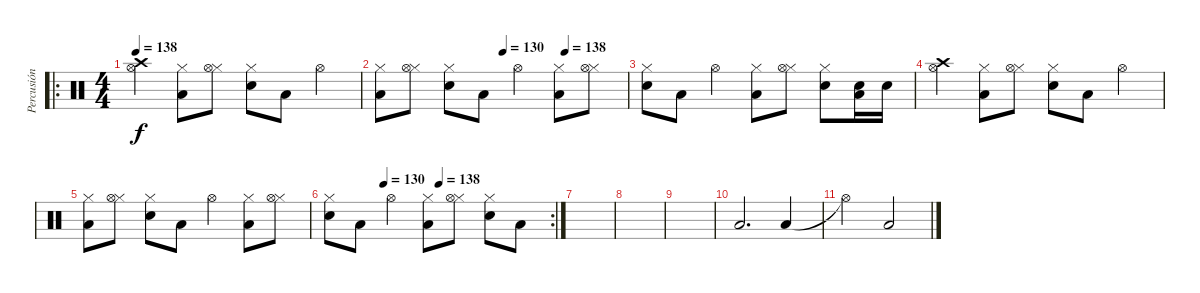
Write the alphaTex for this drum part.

\track ("Percusión" "Percusión") {instrument percussion}
\staff {score}
\articulation defaults
\ro
\ts (4 4)
\tempo 138
\clef neutral
\ks c
("Hi-Hat (open)" "Crash high (hit)").4{dy f} ("Low Tom (hit)" "Hi-Hat (closed)").8 ("Hi-Hat (closed)" "Hi-Hat (open)").8 ("Snare (hit) 2" "Hi-Hat (closed)").8 "Low Tom (hit)".8 "Hi-Hat (open)".4 |
\tempo (130 0.5)
\tempo (138 0.75)
("Low Tom (hit)" "Hi-Hat (closed)").8 ("Hi-Hat (closed)" "Hi-Hat (open)").8 ("Snare (hit) 2" "Hi-Hat (closed)").8 "Low Tom (hit)".8 "Hi-Hat (open)".4 ("Low Tom (hit)" "Hi-Hat (closed)").8 ("Hi-Hat (closed)" "Hi-Hat (open)").8 |
("Snare (hit) 2" "Hi-Hat (closed)").8 "Low Tom (hit)".8 "Hi-Hat (open)".4 ("Low Tom (hit)" "Hi-Hat (closed)").8 ("Hi-Hat (closed)" "Hi-Hat (open)").8 ("Snare (hit) 2" "Hi-Hat (closed)").8 ("Snare (hit) 2" "Low Tom (hit)").16 "Snare (hit) 2".16 |
("Hi-Hat (open)" "Crash high (hit)").4 ("Low Tom (hit)" "Hi-Hat (closed)").8 ("Hi-Hat (closed)" "Hi-Hat (open)").8 ("Snare (hit) 2" "Hi-Hat (closed)").8 "Low Tom (hit)".8 "Hi-Hat (open)".4 |
("Low Tom (hit)" "Hi-Hat (closed)").8 ("Hi-Hat (closed)" "Hi-Hat (open)").8 ("Snare (hit) 2" "Hi-Hat (closed)").8 "Low Tom (hit)".8 "Hi-Hat (open)".4 ("Low Tom (hit)" "Hi-Hat (closed)").8 ("Hi-Hat (closed)" "Hi-Hat (open)").8 |
\rc 2
\tempo (130 0.25)
\tempo (138 0.5)
("Snare (hit) 2" "Hi-Hat (closed)").8 "Low Tom (hit)".8 "Hi-Hat (open)".4 ("Low Tom (hit)" "Hi-Hat (closed)").8 ("Hi-Hat (closed)" "Hi-Hat (open)").8 ("Snare (hit) 2" "Hi-Hat (closed)").8 "Low Tom (hit)".8 |
|
|
|
"Low Tom (hit)".2{d} "Low Tom (hit)".4 |
"Hi-Hat (open)"{t}.2 "Low Tom (hit)".2
